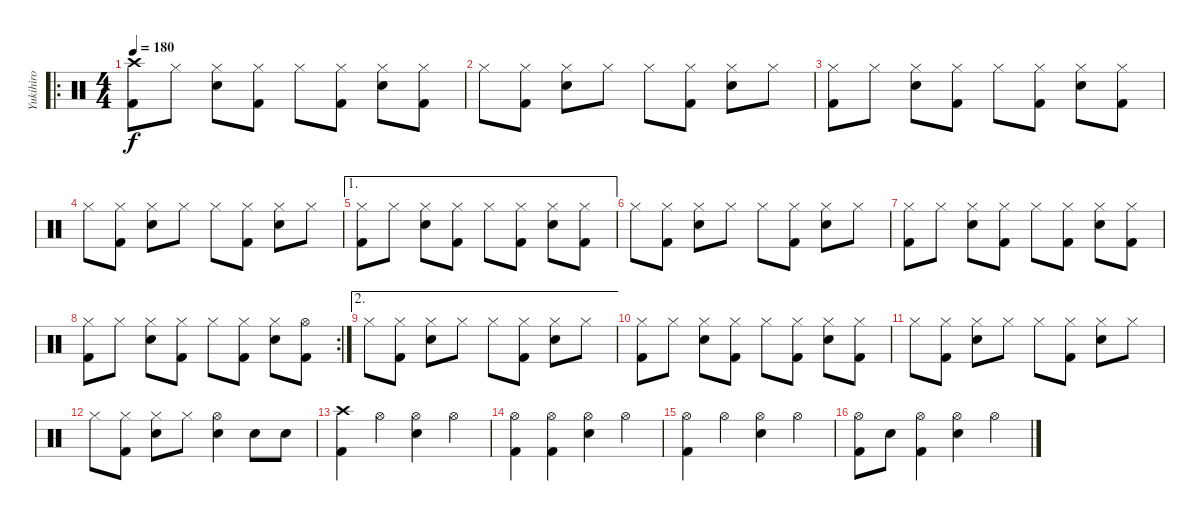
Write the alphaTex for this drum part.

\track ("Yukihiro" "Yukihiro") {instrument percussion}
\staff {score}
\articulation defaults
\ro
\ts (4 4)
\tempo 180
\clef neutral
\ks c
("Crash high (hit)" "Kick (hit) 2").8{dy f} "Hi-Hat (closed)".8 ("Hi-Hat (closed)" "Electric Snare (hit)").8 ("Hi-Hat (closed)" "Kick (hit) 2").8 "Hi-Hat (closed)".8 ("Hi-Hat (closed)" "Kick (hit) 2").8 ("Hi-Hat (closed)" "Electric Snare (hit)").8 ("Hi-Hat (closed)" "Kick (hit) 2").8 |
"Hi-Hat (closed)".8 ("Hi-Hat (closed)" "Kick (hit) 2").8 ("Hi-Hat (closed)" "Electric Snare (hit)").8 "Hi-Hat (closed)".8 "Hi-Hat (closed)".8 ("Hi-Hat (closed)" "Kick (hit) 2").8 ("Hi-Hat (closed)" "Electric Snare (hit)").8 "Hi-Hat (closed)".8 |
("Hi-Hat (closed)" "Kick (hit) 2").8 "Hi-Hat (closed)".8 ("Hi-Hat (closed)" "Electric Snare (hit)").8 ("Hi-Hat (closed)" "Kick (hit) 2").8 "Hi-Hat (closed)".8 ("Hi-Hat (closed)" "Kick (hit) 2").8 ("Hi-Hat (closed)" "Electric Snare (hit)").8 ("Hi-Hat (closed)" "Kick (hit) 2").8 |
"Hi-Hat (closed)".8 ("Hi-Hat (closed)" "Kick (hit) 2").8 ("Hi-Hat (closed)" "Electric Snare (hit)").8 "Hi-Hat (closed)".8 "Hi-Hat (closed)".8 ("Hi-Hat (closed)" "Kick (hit) 2").8 ("Hi-Hat (closed)" "Electric Snare (hit)").8 "Hi-Hat (closed)".8 |
\ae 1
("Hi-Hat (closed)" "Kick (hit) 2").8 "Hi-Hat (closed)".8 ("Hi-Hat (closed)" "Electric Snare (hit)").8 ("Hi-Hat (closed)" "Kick (hit) 2").8 "Hi-Hat (closed)".8 ("Hi-Hat (closed)" "Kick (hit) 2").8 ("Hi-Hat (closed)" "Electric Snare (hit)").8 ("Hi-Hat (closed)" "Kick (hit) 2").8 |
"Hi-Hat (closed)".8 ("Hi-Hat (closed)" "Kick (hit) 2").8 ("Hi-Hat (closed)" "Electric Snare (hit)").8 "Hi-Hat (closed)".8 "Hi-Hat (closed)".8 ("Hi-Hat (closed)" "Kick (hit) 2").8 ("Hi-Hat (closed)" "Electric Snare (hit)").8 "Hi-Hat (closed)".8 |
("Hi-Hat (closed)" "Kick (hit) 2").8 "Hi-Hat (closed)".8 ("Hi-Hat (closed)" "Electric Snare (hit)").8 ("Hi-Hat (closed)" "Kick (hit) 2").8 "Hi-Hat (closed)".8 ("Hi-Hat (closed)" "Kick (hit) 2").8 ("Hi-Hat (closed)" "Electric Snare (hit)").8 ("Hi-Hat (closed)" "Kick (hit) 2").8 |
\rc 2
("Hi-Hat (closed)" "Kick (hit) 2").8 "Hi-Hat (closed)".8 ("Hi-Hat (closed)" "Electric Snare (hit)").8 ("Hi-Hat (closed)" "Kick (hit) 2").8 "Hi-Hat (closed)".8 ("Hi-Hat (closed)" "Kick (hit) 2").8 ("Hi-Hat (closed)" "Electric Snare (hit)").8 ("Hi-Hat (open)" "Kick (hit) 2").8 |
\ae 2 "Hi-Hat (closed)".8
("Hi-Hat (closed)" "Kick (hit) 2").8 ("Hi-Hat (closed)" "Electric Snare (hit)").8 "Hi-Hat (closed)".8 "Hi-Hat (closed)".8 ("Hi-Hat (closed)" "Kick (hit) 2").8 ("Hi-Hat (closed)" "Electric Snare (hit)").8 "Hi-Hat (closed)".8 |
("Hi-Hat (closed)" "Kick (hit) 2").8 "Hi-Hat (closed)".8 ("Hi-Hat (closed)" "Electric Snare (hit)").8 ("Hi-Hat (closed)" "Kick (hit) 2").8 "Hi-Hat (closed)".8 ("Hi-Hat (closed)" "Kick (hit) 2").8 ("Hi-Hat (closed)" "Electric Snare (hit)").8 ("Hi-Hat (closed)" "Kick (hit) 2").8 |
"Hi-Hat (closed)".8 ("Hi-Hat (closed)" "Kick (hit) 2").8 ("Hi-Hat (closed)" "Electric Snare (hit)").8 "Hi-Hat (closed)".8 "Hi-Hat (closed)".8 ("Hi-Hat (closed)" "Kick (hit) 2").8 ("Hi-Hat (closed)" "Electric Snare (hit)").8 "Hi-Hat (closed)".8 |
"Hi-Hat (closed)".8 ("Hi-Hat (closed)" "Kick (hit) 2").8 ("Hi-Hat (closed)" "Electric Snare (hit)").8 "Hi-Hat (closed)".8 ("Hi-Hat (open)" "Electric Snare (hit)").4 "Electric Snare (hit)".8 "Electric Snare (hit)".8 |
("Crash high (hit)" "Kick (hit) 2").4 "Hi-Hat (open)".4 ("Hi-Hat (open)" "Electric Snare (hit)").4 "Hi-Hat (open)".4 |
("Hi-Hat (open)" "Kick (hit) 2").4 ("Hi-Hat (open)" "Kick (hit) 2").4 ("Hi-Hat (open)" "Electric Snare (hit)").4 "Hi-Hat (open)".4 |
("Hi-Hat (open)" "Kick (hit) 2").4 "Hi-Hat (open)".4 ("Hi-Hat (open)" "Electric Snare (hit)").4 "Hi-Hat (open)".4 |
("Hi-Hat (open)" "Kick (hit) 2").8 "Electric Snare (hit)".8 ("Hi-Hat (open)" "Kick (hit) 2").4 ("Hi-Hat (open)" "Electric Snare (hit)").4 "Hi-Hat (open)".4
